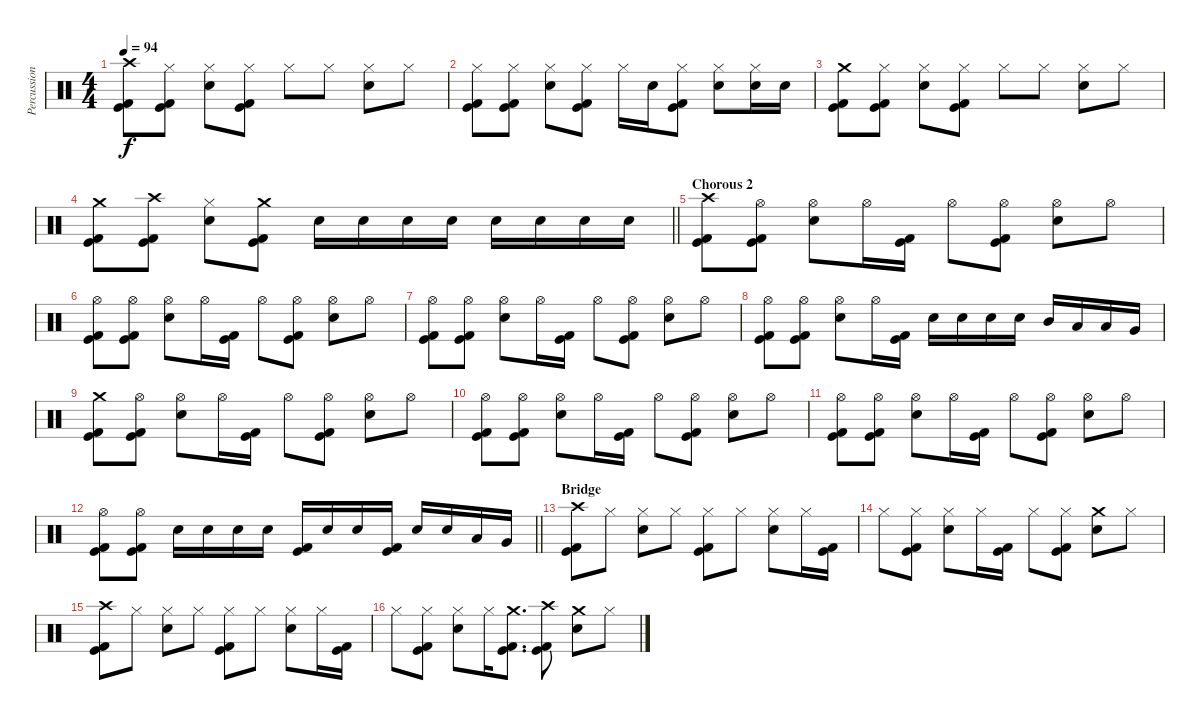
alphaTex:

\track ("Percussion" "Percussion") {instrument percussion}
\staff {score}
\articulation defaults
\ts (4 4)
\tempo 94
\clef neutral
\ks c
("Crash high (hit)" "Kick (hit)" "Kick (hit) 2").8{dy f} ("Hi-Hat (closed)" "Kick (hit)" "Kick (hit) 2").8 ("Hi-Hat (closed)" "Electric Snare (hit)").8 ("Hi-Hat (closed)" "Kick (hit)" "Kick (hit) 2").8 "Hi-Hat (closed)".8 "Hi-Hat (closed)".8 ("Hi-Hat (closed)" "Electric Snare (hit)").8 "Hi-Hat (closed)".8 |
("Hi-Hat (closed)" "Kick (hit)" "Kick (hit) 2").8 ("Hi-Hat (closed)" "Kick (hit)" "Kick (hit) 2").8 ("Hi-Hat (closed)" "Electric Snare (hit)").8 ("Hi-Hat (closed)" "Kick (hit)" "Kick (hit) 2").8 "Hi-Hat (closed)".16 "Electric Snare (hit)".16 ("Hi-Hat (closed)" "Kick (hit)" "Kick (hit) 2").8 ("Hi-Hat (closed)" "Electric Snare (hit)").8 ("Hi-Hat (closed)" "Electric Snare (hit)").16 "Electric Snare (hit)".16 |
("Crash medium (hit)" "Kick (hit)" "Kick (hit) 2").8 ("Hi-Hat (closed)" "Kick (hit)" "Kick (hit) 2").8 ("Hi-Hat (closed)" "Electric Snare (hit)").8 ("Hi-Hat (closed)" "Kick (hit)" "Kick (hit) 2").8 "Hi-Hat (closed)".8 "Hi-Hat (closed)".8 ("Hi-Hat (closed)" "Electric Snare (hit)").8 "Hi-Hat (closed)".8 |
\barLineRight lightlight
("Crash medium (hit)" "Kick (hit)" "Kick (hit) 2").8 ("Crash high (hit)" "Kick (hit)" "Kick (hit) 2").8 ("Hi-Hat (closed)" "Electric Snare (hit)").8 ("Crash medium (hit)" "Kick (hit)" "Kick (hit) 2").8 "Electric Snare (hit)".16 "Electric Snare (hit)".16 "Electric Snare (hit)".16 "Electric Snare (hit)".16 "Electric Snare (hit)".16 "Electric Snare (hit)".16 "Electric Snare (hit)".16 "Electric Snare (hit)".16 |
\section ("" "Chorous 2")
("Crash high (hit)" "Kick (hit)" "Kick (hit) 2").8 ("Hi-Hat (open)" "Kick (hit)" "Kick (hit) 2").8 ("Hi-Hat (open)" "Electric Snare (hit)").8 "Hi-Hat (open)".16 ("Kick (hit)" "Kick (hit) 2").16 "Hi-Hat (open)".8 ("Hi-Hat (open)" "Kick (hit)" "Kick (hit) 2").8 ("Hi-Hat (open)" "Electric Snare (hit)").8 "Hi-Hat (open)".8 |
("Hi-Hat (open)" "Kick (hit)" "Kick (hit) 2").8 ("Hi-Hat (open)" "Kick (hit)" "Kick (hit) 2").8 ("Hi-Hat (open)" "Electric Snare (hit)").8 "Hi-Hat (open)".16 ("Kick (hit)" "Kick (hit) 2").16 "Hi-Hat (open)".8 ("Hi-Hat (open)" "Kick (hit)" "Kick (hit) 2").8 ("Hi-Hat (open)" "Electric Snare (hit)").8 "Hi-Hat (open)".8 |
("Hi-Hat (open)" "Kick (hit)" "Kick (hit) 2").8 ("Hi-Hat (open)" "Kick (hit)" "Kick (hit) 2").8 ("Hi-Hat (open)" "Electric Snare (hit)").8 "Hi-Hat (open)".16 ("Kick (hit)" "Kick (hit) 2").16 "Hi-Hat (open)".8 ("Hi-Hat (open)" "Kick (hit)" "Kick (hit) 2").8 ("Hi-Hat (open)" "Electric Snare (hit)").8 "Hi-Hat (open)".8 |
("Hi-Hat (open)" "Kick (hit)" "Kick (hit) 2").8 ("Hi-Hat (open)" "Kick (hit)" "Kick (hit) 2").8 ("Hi-Hat (open)" "Electric Snare (hit)").8 "Hi-Hat (open)".16 ("Kick (hit)" "Kick (hit) 2").16 "Electric Snare (hit)".16 "Electric Snare (hit)".16 "Electric Snare (hit)".16 "Electric Snare (hit)".16 "Mid Tom (hit)".16 "Low Tom (hit)".16 "Low Tom (hit)".16 "Very Low Tom (hit)".16 |
("Crash medium (hit)" "Kick (hit)" "Kick (hit) 2").8 ("Hi-Hat (open)" "Kick (hit)" "Kick (hit) 2").8 ("Hi-Hat (open)" "Electric Snare (hit)").8 "Hi-Hat (open)".16 ("Kick (hit)" "Kick (hit) 2").16 "Hi-Hat (open)".8 ("Hi-Hat (open)" "Kick (hit)" "Kick (hit) 2").8 ("Hi-Hat (open)" "Electric Snare (hit)").8 "Hi-Hat (open)".8 |
("Hi-Hat (open)" "Kick (hit)" "Kick (hit) 2").8 ("Hi-Hat (open)" "Kick (hit)" "Kick (hit) 2").8 ("Hi-Hat (open)" "Electric Snare (hit)").8 "Hi-Hat (open)".16 ("Kick (hit)" "Kick (hit) 2").16 "Hi-Hat (open)".8 ("Hi-Hat (open)" "Kick (hit)" "Kick (hit) 2").8 ("Hi-Hat (open)" "Electric Snare (hit)").8 "Hi-Hat (open)".8 |
("Hi-Hat (open)" "Kick (hit)" "Kick (hit) 2").8 ("Hi-Hat (open)" "Kick (hit)" "Kick (hit) 2").8 ("Hi-Hat (open)" "Electric Snare (hit)").8 "Hi-Hat (open)".16 ("Kick (hit)" "Kick (hit) 2").16 "Hi-Hat (open)".8 ("Hi-Hat (open)" "Kick (hit)" "Kick (hit) 2").8 ("Hi-Hat (open)" "Electric Snare (hit)").8 "Hi-Hat (open)".8 |
\barLineRight lightlight
("Hi-Hat (open)" "Kick (hit)" "Kick (hit) 2").8 ("Hi-Hat (open)" "Kick (hit)" "Kick (hit) 2").8 "Electric Snare (hit)".16 "Electric Snare (hit)".16 "Electric Snare (hit)".16 "Electric Snare (hit)".16 ("Kick (hit)" "Kick (hit) 2").16 "Electric Snare (hit)".16 "Electric Snare (hit)".16 ("Kick (hit)" "Kick (hit) 2").16 "Electric Snare (hit)".16 "Electric Snare (hit)".16 "Low Tom (hit)".16 "Very Low Tom (hit)".16 |
\section ("" "Bridge")
("Crash high (hit)" "Kick (hit)" "Kick (hit) 2").8 "Hi-Hat (closed)".8 ("Hi-Hat (closed)" "Electric Snare (hit)").8 "Hi-Hat (closed)".8 ("Hi-Hat (closed)" "Kick (hit)" "Kick (hit) 2").8 "Hi-Hat (closed)".8 ("Hi-Hat (closed)" "Electric Snare (hit)").8 "Hi-Hat (closed)".16 ("Kick (hit)" "Kick (hit) 2").16 |
"Hi-Hat (closed)".8 ("Hi-Hat (closed)" "Kick (hit)" "Kick (hit) 2").8 ("Hi-Hat (closed)" "Electric Snare (hit)").8 "Hi-Hat (closed)".16 ("Kick (hit)" "Kick (hit) 2").16 "Hi-Hat (closed)".8 ("Hi-Hat (closed)" "Kick (hit)" "Kick (hit) 2").8 ("Crash medium (hit)" "Electric Snare (hit)").8 "Hi-Hat (closed)".8 |
("Crash high (hit)" "Kick (hit)" "Kick (hit) 2").8 "Hi-Hat (closed)".8 ("Hi-Hat (closed)" "Electric Snare (hit)").8 "Hi-Hat (closed)".8 ("Hi-Hat (closed)" "Kick (hit)" "Kick (hit) 2").8 "Hi-Hat (closed)".8 ("Hi-Hat (closed)" "Electric Snare (hit)").8 "Hi-Hat (closed)".16 ("Kick (hit)" "Kick (hit) 2").16 |
"Hi-Hat (closed)".8 ("Hi-Hat (closed)" "Kick (hit)" "Kick (hit) 2").8 ("Hi-Hat (closed)" "Electric Snare (hit)").8 "Hi-Hat (closed)".16 ("Crash medium (hit)" "Kick (hit)" "Kick (hit) 2").8{d} ("Crash high (hit)" "Kick (hit)" "Kick (hit) 2").8 ("Crash medium (hit)" "Electric Snare (hit)").8 "Hi-Hat (closed)".8
